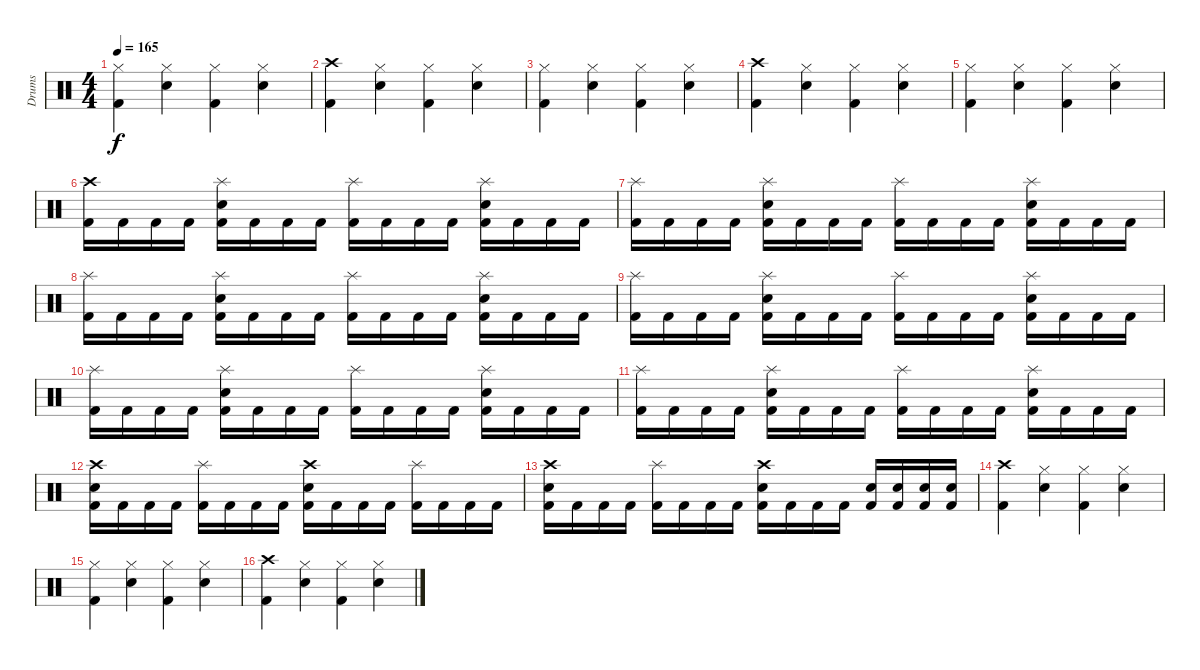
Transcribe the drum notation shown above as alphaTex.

\track ("Drums" "Drums") {instrument percussion}
\staff {score}
\articulation defaults
\ts (4 4)
\tempo 165
\clef neutral
\ks c
("Kick (hit) 2" "Hi-Hat (closed)").4{dy f} ("Snare (hit) 2" "Hi-Hat (closed)").4 ("Kick (hit) 2" "Hi-Hat (closed)").4 ("Snare (hit) 2" "Hi-Hat (closed)").4 |
("Kick (hit) 2" "Crash high (hit)").4 ("Snare (hit) 2" "Hi-Hat (closed)").4 ("Kick (hit) 2" "Hi-Hat (closed)").4 ("Snare (hit) 2" "Hi-Hat (closed)").4 |
("Kick (hit) 2" "Hi-Hat (closed)").4 ("Snare (hit) 2" "Hi-Hat (closed)").4 ("Kick (hit) 2" "Hi-Hat (closed)").4 ("Snare (hit) 2" "Hi-Hat (closed)").4 |
("Kick (hit) 2" "Crash high (hit)").4 ("Snare (hit) 2" "Hi-Hat (closed)").4 ("Kick (hit) 2" "Hi-Hat (closed)").4 ("Snare (hit) 2" "Hi-Hat (closed)").4 |
("Kick (hit) 2" "Hi-Hat (closed)").4 ("Snare (hit) 2" "Hi-Hat (closed)").4 ("Kick (hit) 2" "Hi-Hat (closed)").4 ("Snare (hit) 2" "Hi-Hat (closed)").4 |
("Kick (hit) 2" "Crash high (hit)").16 "Kick (hit) 2".16 "Kick (hit) 2".16 "Kick (hit) 2".16 ("Kick (hit) 2" "Snare (hit) 2" "Splash (hit)").16 "Kick (hit) 2".16 "Kick (hit) 2".16 "Kick (hit) 2".16 ("Kick (hit) 2" "Splash (hit)").16 "Kick (hit) 2".16 "Kick (hit) 2".16 "Kick (hit) 2".16 ("Kick (hit) 2" "Snare (hit) 2" "Splash (hit)").16 "Kick (hit) 2".16 "Kick (hit) 2".16 "Kick (hit) 2".16 |
("Kick (hit) 2" "Splash (hit)").16 "Kick (hit) 2".16 "Kick (hit) 2".16 "Kick (hit) 2".16 ("Kick (hit) 2" "Snare (hit) 2" "Splash (hit)").16 "Kick (hit) 2".16 "Kick (hit) 2".16 "Kick (hit) 2".16 ("Kick (hit) 2" "Splash (hit)").16 "Kick (hit) 2".16 "Kick (hit) 2".16 "Kick (hit) 2".16 ("Kick (hit) 2" "Snare (hit) 2" "Splash (hit)").16 "Kick (hit) 2".16 "Kick (hit) 2".16 "Kick (hit) 2".16 |
("Kick (hit) 2" "Splash (hit)").16 "Kick (hit) 2".16 "Kick (hit) 2".16 "Kick (hit) 2".16 ("Kick (hit) 2" "Snare (hit) 2" "Splash (hit)").16 "Kick (hit) 2".16 "Kick (hit) 2".16 "Kick (hit) 2".16 ("Kick (hit) 2" "Splash (hit)").16 "Kick (hit) 2".16 "Kick (hit) 2".16 "Kick (hit) 2".16 ("Kick (hit) 2" "Snare (hit) 2" "Splash (hit)").16 "Kick (hit) 2".16 "Kick (hit) 2".16 "Kick (hit) 2".16 |
("Kick (hit) 2" "Splash (hit)").16 "Kick (hit) 2".16 "Kick (hit) 2".16 "Kick (hit) 2".16 ("Kick (hit) 2" "Snare (hit) 2" "Splash (hit)").16 "Kick (hit) 2".16 "Kick (hit) 2".16 "Kick (hit) 2".16 ("Kick (hit) 2" "Splash (hit)").16 "Kick (hit) 2".16 "Kick (hit) 2".16 "Kick (hit) 2".16 ("Kick (hit) 2" "Snare (hit) 2" "Splash (hit)").16 "Kick (hit) 2".16 "Kick (hit) 2".16 "Kick (hit) 2".16 |
("Kick (hit) 2" "Splash (hit)").16 "Kick (hit) 2".16 "Kick (hit) 2".16 "Kick (hit) 2".16 ("Kick (hit) 2" "Snare (hit) 2" "Splash (hit)").16 "Kick (hit) 2".16 "Kick (hit) 2".16 "Kick (hit) 2".16 ("Kick (hit) 2" "Splash (hit)").16 "Kick (hit) 2".16 "Kick (hit) 2".16 "Kick (hit) 2".16 ("Kick (hit) 2" "Snare (hit) 2" "Splash (hit)").16 "Kick (hit) 2".16 "Kick (hit) 2".16 "Kick (hit) 2".16 |
("Kick (hit) 2" "Splash (hit)").16 "Kick (hit) 2".16 "Kick (hit) 2".16 "Kick (hit) 2".16 ("Kick (hit) 2" "Snare (hit) 2" "Splash (hit)").16 "Kick (hit) 2".16 "Kick (hit) 2".16 "Kick (hit) 2".16 ("Kick (hit) 2" "Splash (hit)").16 "Kick (hit) 2".16 "Kick (hit) 2".16 "Kick (hit) 2".16 ("Kick (hit) 2" "Snare (hit) 2" "Splash (hit)").16 "Kick (hit) 2".16 "Kick (hit) 2".16 "Kick (hit) 2".16 |
("Kick (hit) 2" "Snare (hit) 2" "Crash high (hit)").16 "Kick (hit) 2".16 "Kick (hit) 2".16 "Kick (hit) 2".16 ("Kick (hit) 2" "Splash (hit)").16 "Kick (hit) 2".16 "Kick (hit) 2".16 "Kick (hit) 2".16 ("Kick (hit) 2" "Snare (hit) 2" "Crash high (hit)").16 "Kick (hit) 2".16 "Kick (hit) 2".16 "Kick (hit) 2".16 ("Kick (hit) 2" "Splash (hit)").16 "Kick (hit) 2".16 "Kick (hit) 2".16 "Kick (hit) 2".16 |
("Kick (hit) 2" "Snare (hit) 2" "Crash high (hit)").16 "Kick (hit) 2".16 "Kick (hit) 2".16 "Kick (hit) 2".16 ("Kick (hit) 2" "Splash (hit)").16 "Kick (hit) 2".16 "Kick (hit) 2".16 "Kick (hit) 2".16 ("Kick (hit) 2" "Snare (hit) 2" "Crash high (hit)").16 "Kick (hit) 2".16 "Kick (hit) 2".16 "Kick (hit) 2".16 ("Kick (hit) 2" "Snare (hit) 2").16 ("Kick (hit) 2" "Snare (hit) 2").16 ("Kick (hit) 2" "Snare (hit) 2").16 ("Kick (hit) 2" "Snare (hit) 2").16 |
("Kick (hit) 2" "Crash high (hit)").4 ("Snare (hit) 2" "Hi-Hat (closed)").4 ("Kick (hit) 2" "Hi-Hat (closed)").4 ("Snare (hit) 2" "Hi-Hat (closed)").4 |
("Kick (hit) 2" "Hi-Hat (closed)").4 ("Snare (hit) 2" "Hi-Hat (closed)").4 ("Kick (hit) 2" "Hi-Hat (closed)").4 ("Snare (hit) 2" "Hi-Hat (closed)").4 |
("Kick (hit) 2" "Crash high (hit)").4 ("Snare (hit) 2" "Hi-Hat (closed)").4 ("Kick (hit) 2" "Hi-Hat (closed)").4 ("Snare (hit) 2" "Hi-Hat (closed)").4
